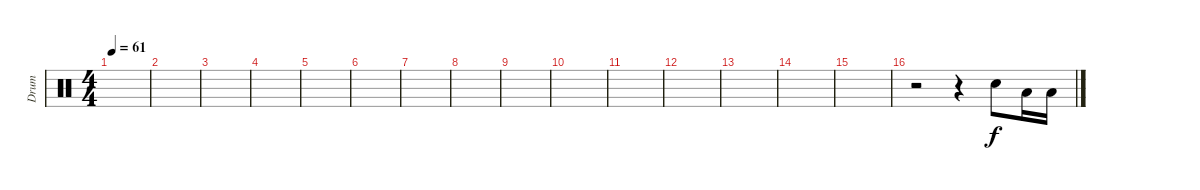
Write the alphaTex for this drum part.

\track ("Drum" "Drum") {instrument percussion}
\staff {score}
\articulation defaults
\ts (4 4)
\tempo 61
\clef neutral
\ks c
|
|
|
|
|
|
|
|
|
|
|
|
|
|
|
r.2 r.4 "Snare (hit) 2".8 "Low Tom (hit)".16 "Low Tom (hit)".16
